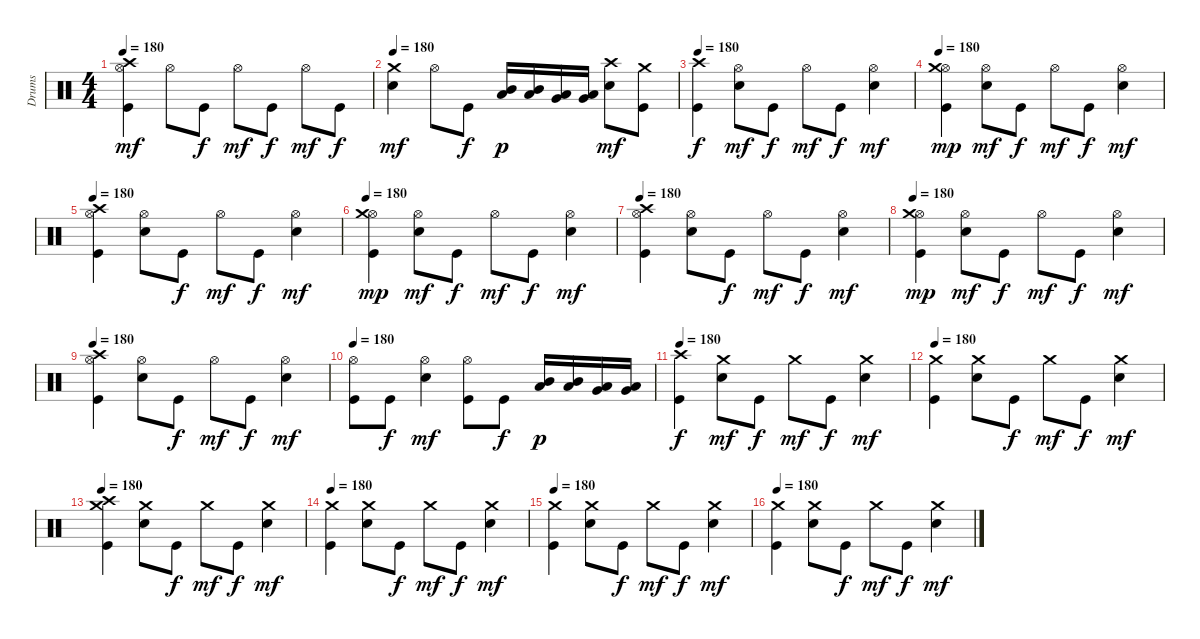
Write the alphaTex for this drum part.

\track ("Drums" "Drums") {instrument percussion}
\staff {score}
\articulation defaults
\ts (4 4)
\tempo 180
\clef neutral
\ks c
("Kick (hit)" "Hi-Hat (open)" "Crash high (hit)").4{dy mf} "Hi-Hat (open)".8 "Kick (hit)".8{dy f} "Hi-Hat (open)".8{dy mf} "Kick (hit)".8{dy f} "Hi-Hat (open)".8{dy mf} "Kick (hit)".8{dy f} |
\tempo 180
("Electric Snare (hit)" "Crash medium (hit)").4{dy mf} "Hi-Hat (open)".8 "Kick (hit)".8{dy f} ("Low Tom (hit)" "Mid Tom (hit)").16{dy p} ("Low Tom (hit)" "Mid Tom (hit)").16 ("Very Low Tom (hit)" "Low Tom (hit)").16 ("Very Low Tom (hit)" "Low Tom (hit)").16 ("Electric Snare (hit)" "Crash high (hit)").8{dy mf} ("Kick (hit)" "Crash medium (hit)").8 |
\tempo 180
("Kick (hit)" "Crash high (hit)").4{dy f} ("Electric Snare (hit)" "Hi-Hat (open)").8{dy mf} "Kick (hit)".8{dy f} "Hi-Hat (open)".8{dy mf} "Kick (hit)".8{dy f} ("Electric Snare (hit)" "Hi-Hat (open)").4{dy mf} |
\tempo 180
("Kick (hit)" "Hi-Hat (open)" "Crash medium (hit)").4{dy mp} ("Electric Snare (hit)" "Hi-Hat (open)").8{dy mf} "Kick (hit)".8{dy f} "Hi-Hat (open)".8{dy mf} "Kick (hit)".8{dy f} ("Electric Snare (hit)" "Hi-Hat (open)").4{dy mf} |
\tempo 180
("Kick (hit)" "Hi-Hat (open)" "Crash high (hit)").4 ("Electric Snare (hit)" "Hi-Hat (open)").8 "Kick (hit)".8{dy f} "Hi-Hat (open)".8{dy mf} "Kick (hit)".8{dy f} ("Electric Snare (hit)" "Hi-Hat (open)").4{dy mf} |
\tempo 180
("Kick (hit)" "Hi-Hat (open)" "Crash medium (hit)").4{dy mp} ("Electric Snare (hit)" "Hi-Hat (open)").8{dy mf} "Kick (hit)".8{dy f} "Hi-Hat (open)".8{dy mf} "Kick (hit)".8{dy f} ("Electric Snare (hit)" "Hi-Hat (open)").4{dy mf} |
\tempo 180
("Kick (hit)" "Hi-Hat (open)" "Crash high (hit)").4 ("Electric Snare (hit)" "Hi-Hat (open)").8 "Kick (hit)".8{dy f} "Hi-Hat (open)".8{dy mf} "Kick (hit)".8{dy f} ("Electric Snare (hit)" "Hi-Hat (open)").4{dy mf} |
\tempo 180
("Kick (hit)" "Hi-Hat (open)" "Crash medium (hit)").4{dy mp} ("Electric Snare (hit)" "Hi-Hat (open)").8{dy mf} "Kick (hit)".8{dy f} "Hi-Hat (open)".8{dy mf} "Kick (hit)".8{dy f} ("Electric Snare (hit)" "Hi-Hat (open)").4{dy mf} |
\tempo 180
("Kick (hit)" "Hi-Hat (open)" "Crash high (hit)").4 ("Electric Snare (hit)" "Hi-Hat (open)").8 "Kick (hit)".8{dy f} "Hi-Hat (open)".8{dy mf} "Kick (hit)".8{dy f} ("Electric Snare (hit)" "Hi-Hat (open)").4{dy mf} |
\tempo 180
("Kick (hit)" "Hi-Hat (open)").8 "Kick (hit)".8{dy f} ("Electric Snare (hit)" "Hi-Hat (open)").4{dy mf} ("Kick (hit)" "Hi-Hat (open)").8 "Kick (hit)".8{dy f} ("Low Tom (hit)" "Mid Tom (hit)").16{dy p} ("Low Tom (hit)" "Mid Tom (hit)").16 ("Very Low Tom (hit)" "Low Tom (hit)").16 ("Very Low Tom (hit)" "Low Tom (hit)").16 |
\tempo 180
("Kick (hit)" "Crash high (hit)").4{dy f} ("Electric Snare (hit)" "Crash medium (hit)").8{dy mf} "Kick (hit)".8{dy f} "Crash medium (hit)".8{dy mf} "Kick (hit)".8{dy f} ("Electric Snare (hit)" "Crash medium (hit)").4{dy mf} |
\tempo 180
("Kick (hit)" "Crash medium (hit)").4 ("Electric Snare (hit)" "Crash medium (hit)").8 "Kick (hit)".8{dy f} "Crash medium (hit)".8{dy mf} "Kick (hit)".8{dy f} ("Electric Snare (hit)" "Crash medium (hit)").4{dy mf} |
\tempo 180
("Kick (hit)" "Crash medium (hit)" "Crash high (hit)").4 ("Electric Snare (hit)" "Crash medium (hit)").8 "Kick (hit)".8{dy f} "Crash medium (hit)".8{dy mf} "Kick (hit)".8{dy f} ("Electric Snare (hit)" "Crash medium (hit)").4{dy mf} |
\tempo 180
("Kick (hit)" "Crash medium (hit)").4 ("Electric Snare (hit)" "Crash medium (hit)").8 "Kick (hit)".8{dy f} "Crash medium (hit)".8{dy mf} "Kick (hit)".8{dy f} ("Electric Snare (hit)" "Crash medium (hit)").4{dy mf} |
\tempo 180
("Kick (hit)" "Crash medium (hit)").4 ("Electric Snare (hit)" "Crash medium (hit)").8 "Kick (hit)".8{dy f} "Crash medium (hit)".8{dy mf} "Kick (hit)".8{dy f} ("Electric Snare (hit)" "Crash medium (hit)").4{dy mf} |
\tempo 180
("Kick (hit)" "Crash medium (hit)").4 ("Electric Snare (hit)" "Crash medium (hit)").8 "Kick (hit)".8{dy f} "Crash medium (hit)".8{dy mf} "Kick (hit)".8{dy f} ("Electric Snare (hit)" "Crash medium (hit)").4{dy mf}
